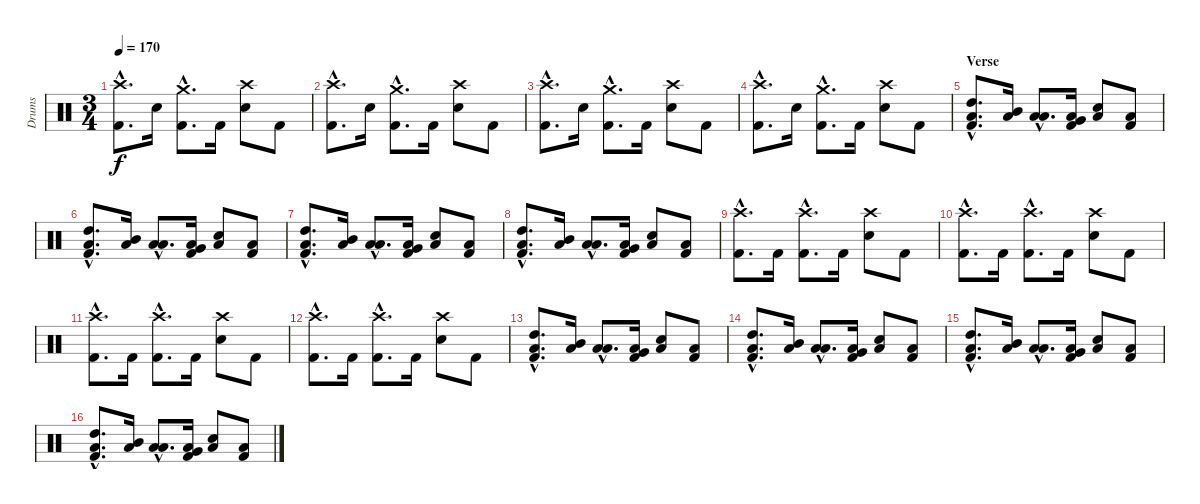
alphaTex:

\track ("Drums" "Drums") {instrument percussion}
\staff {score}
\articulation defaults
\ts (3 4)
\tempo 170
\clef neutral
\ks c
("Crash high (hit)"{hac} "Kick (hit) 2"{hac}).8{d dy f} "Electric Snare (hit)".16 ("Crash medium (hit)"{hac} "Kick (hit) 2"{hac}).8{d} "Kick (hit) 2".16 ("Crash high (hit)" "Electric Snare (hit)").8 "Kick (hit) 2".8 |
("Crash high (hit)"{hac} "Kick (hit) 2"{hac}).8{d} "Electric Snare (hit)".16 ("Crash medium (hit)"{hac} "Kick (hit) 2"{hac}).8{d} "Kick (hit) 2".16 ("Crash high (hit)" "Electric Snare (hit)").8 "Kick (hit) 2".8 |
("Crash high (hit)"{hac} "Kick (hit) 2"{hac}).8{d} "Electric Snare (hit)".16 ("Crash medium (hit)"{hac} "Kick (hit) 2"{hac}).8{d} "Kick (hit) 2".16 ("Crash high (hit)" "Electric Snare (hit)").8 "Kick (hit) 2".8 |
("Crash high (hit)"{hac} "Kick (hit) 2"{hac}).8{d} "Electric Snare (hit)".16 ("Crash medium (hit)"{hac} "Kick (hit) 2"{hac}).8{d} "Kick (hit) 2".16 ("Crash high (hit)" "Electric Snare (hit)").8 "Kick (hit) 2".8 |
\section ("" "Verse")
("High Tom (hit)"{hac} "Low Floor Tom (hit)"{hac} "Kick (hit) 2"{hac}).8{d} ("Mid Tom (hit)" "Low Floor Tom (hit)").16 ("Low Tom (hit)"{hac} "Low Floor Tom (hit)"{hac}).8{d} ("Very Low Tom (hit)" "Low Floor Tom (hit)" "Kick (hit) 2").16 ("Electric Snare (hit)" "Low Floor Tom (hit)").8 ("Low Floor Tom (hit)" "Kick (hit) 2").8 |
("High Tom (hit)"{hac} "Low Floor Tom (hit)"{hac} "Kick (hit) 2"{hac}).8{d} ("Mid Tom (hit)" "Low Floor Tom (hit)").16 ("Low Tom (hit)"{hac} "Low Floor Tom (hit)"{hac}).8{d} ("Very Low Tom (hit)" "Low Floor Tom (hit)" "Kick (hit) 2").16 ("Electric Snare (hit)" "Low Floor Tom (hit)").8 ("Low Floor Tom (hit)" "Kick (hit) 2").8 |
("High Tom (hit)"{hac} "Low Floor Tom (hit)"{hac} "Kick (hit) 2"{hac}).8{d} ("Mid Tom (hit)" "Low Floor Tom (hit)").16 ("Low Tom (hit)"{hac} "Low Floor Tom (hit)"{hac}).8{d} ("Very Low Tom (hit)" "Low Floor Tom (hit)" "Kick (hit) 2").16 ("Electric Snare (hit)" "Low Floor Tom (hit)").8 ("Low Floor Tom (hit)" "Kick (hit) 2").8 |
("High Tom (hit)"{hac} "Low Floor Tom (hit)"{hac} "Kick (hit) 2"{hac}).8{d} ("Mid Tom (hit)" "Low Floor Tom (hit)").16 ("Low Tom (hit)"{hac} "Low Floor Tom (hit)"{hac}).8{d} ("Very Low Tom (hit)" "Low Floor Tom (hit)" "Kick (hit) 2").16 ("Electric Snare (hit)" "Low Floor Tom (hit)").8 ("Low Floor Tom (hit)" "Kick (hit) 2").8 |
("Crash high (hit)"{hac} "Kick (hit) 2"{hac}).8{d} "Kick (hit) 2".16 ("Crash high (hit)"{hac} "Kick (hit) 2"{hac}).8{d} "Kick (hit) 2".16 ("Crash high (hit)" "Electric Snare (hit)").8 "Kick (hit) 2".8 |
("Crash high (hit)"{hac} "Kick (hit) 2"{hac}).8{d} "Kick (hit) 2".16 ("Crash high (hit)"{hac} "Kick (hit) 2"{hac}).8{d} "Kick (hit) 2".16 ("Crash high (hit)" "Electric Snare (hit)").8 "Kick (hit) 2".8 |
("Crash high (hit)"{hac} "Kick (hit) 2"{hac}).8{d} "Kick (hit) 2".16 ("Crash high (hit)"{hac} "Kick (hit) 2"{hac}).8{d} "Kick (hit) 2".16 ("Crash high (hit)" "Electric Snare (hit)").8 "Kick (hit) 2".8 |
("Crash high (hit)"{hac} "Kick (hit) 2"{hac}).8{d} "Kick (hit) 2".16 ("Crash high (hit)"{hac} "Kick (hit) 2"{hac}).8{d} "Kick (hit) 2".16 ("Crash high (hit)" "Electric Snare (hit)").8 "Kick (hit) 2".8 |
("High Tom (hit)"{hac} "Low Floor Tom (hit)"{hac} "Kick (hit) 2"{hac}).8{d} ("Mid Tom (hit)" "Low Floor Tom (hit)").16 ("Low Tom (hit)"{hac} "Low Floor Tom (hit)"{hac}).8{d} ("Very Low Tom (hit)" "Low Floor Tom (hit)" "Kick (hit) 2").16 ("Electric Snare (hit)" "Low Floor Tom (hit)").8 ("Low Floor Tom (hit)" "Kick (hit) 2").8 |
("High Tom (hit)"{hac} "Low Floor Tom (hit)"{hac} "Kick (hit) 2"{hac}).8{d} ("Mid Tom (hit)" "Low Floor Tom (hit)").16 ("Low Tom (hit)"{hac} "Low Floor Tom (hit)"{hac}).8{d} ("Very Low Tom (hit)" "Low Floor Tom (hit)" "Kick (hit) 2").16 ("Electric Snare (hit)" "Low Floor Tom (hit)").8 ("Low Floor Tom (hit)" "Kick (hit) 2").8 |
("High Tom (hit)"{hac} "Low Floor Tom (hit)"{hac} "Kick (hit) 2"{hac}).8{d} ("Mid Tom (hit)" "Low Floor Tom (hit)").16 ("Low Tom (hit)"{hac} "Low Floor Tom (hit)"{hac}).8{d} ("Very Low Tom (hit)" "Low Floor Tom (hit)" "Kick (hit) 2").16 ("Electric Snare (hit)" "Low Floor Tom (hit)").8 ("Low Floor Tom (hit)" "Kick (hit) 2").8 |
("High Tom (hit)"{hac} "Low Floor Tom (hit)"{hac} "Kick (hit) 2"{hac}).8{d} ("Mid Tom (hit)" "Low Floor Tom (hit)").16 ("Low Tom (hit)"{hac} "Low Floor Tom (hit)"{hac}).8{d} ("Very Low Tom (hit)" "Low Floor Tom (hit)" "Kick (hit) 2").16 ("Electric Snare (hit)" "Low Floor Tom (hit)").8 ("Low Floor Tom (hit)" "Kick (hit) 2").8
